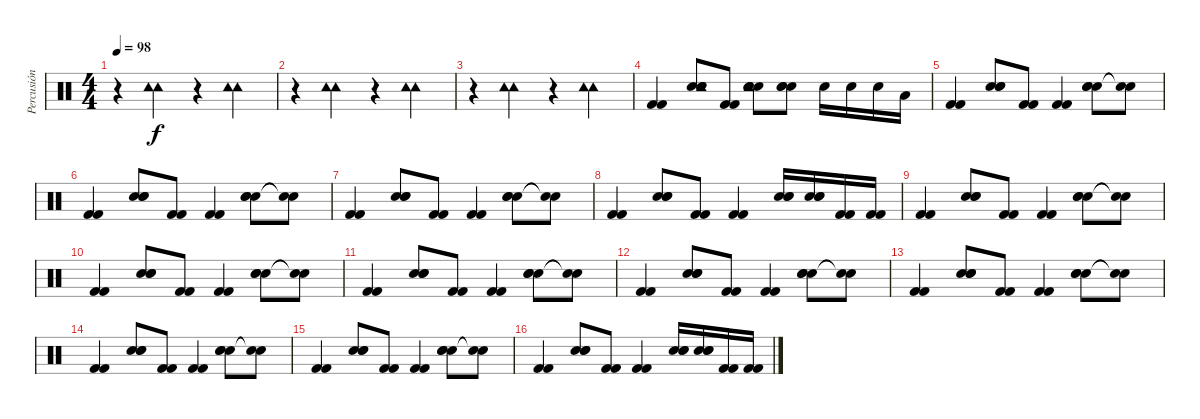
\track ("Percusión" "Percusión") {instrument percussion}
\staff {score}
\articulation defaults
\ts (4 4)
\tempo 98
\clef neutral
\ks c
r.4{dy f} ("Tambourine (hit)" "Tambourine (hit)").4 r.4 ("Tambourine (hit)" "Tambourine (hit)").4 |
r.4 ("Tambourine (hit)" "Tambourine (hit)").4 r.4 ("Tambourine (hit)" "Tambourine (hit)").4 |
r.4 ("Tambourine (hit)" "Tambourine (hit)").4 r.4 ("Tambourine (hit)" "Tambourine (hit)").4 |
("Kick (hit) 2" "Kick (hit) 2").4 ("Electric Snare (hit)" "Electric Snare (hit)" "Electric Snare (hit)" "Tambourine (hit)" "Tambourine (hit)").8 ("Kick (hit) 2" "Kick (hit) 2").8 ("Electric Snare (hit)" "Electric Snare (hit)" "Electric Snare (hit)" "Tambourine (hit)" "Tambourine (hit)").8 ("Electric Snare (hit)" "Electric Snare (hit)" "Electric Snare (hit)").8 "Snare (hit) 2".16 "Snare (hit) 2".16 "Snare (hit) 2".16 "Low Floor Tom (hit)".16 |
("Kick (hit) 2" "Kick (hit) 2").4 ("Electric Snare (hit)" "Electric Snare (hit)" "Electric Snare (hit)").8 ("Kick (hit) 2" "Kick (hit) 2").8 ("Kick (hit) 2" "Kick (hit) 2").4 ("Electric Snare (hit)" "Electric Snare (hit)" "Electric Snare (hit)").8 ("Snare (hit)"{t} "Snare (hit)"{t}).8 |
("Kick (hit) 2" "Kick (hit) 2").4 ("Electric Snare (hit)" "Electric Snare (hit)" "Electric Snare (hit)").8 ("Kick (hit) 2" "Kick (hit) 2").8 ("Kick (hit) 2" "Kick (hit) 2").4 ("Electric Snare (hit)" "Electric Snare (hit)" "Electric Snare (hit)").8 ("Snare (hit)"{t} "Snare (hit)"{t}).8 |
("Kick (hit) 2" "Kick (hit) 2").4 ("Electric Snare (hit)" "Electric Snare (hit)" "Electric Snare (hit)").8 ("Kick (hit) 2" "Kick (hit) 2").8 ("Kick (hit) 2" "Kick (hit) 2").4 ("Electric Snare (hit)" "Electric Snare (hit)" "Electric Snare (hit)").8 ("Snare (hit)"{t} "Snare (hit)"{t}).8 |
("Kick (hit) 2" "Kick (hit) 2").4 ("Electric Snare (hit)" "Electric Snare (hit)" "Electric Snare (hit)").8 ("Kick (hit) 2" "Kick (hit) 2").8 ("Kick (hit) 2" "Kick (hit) 2").4 ("Electric Snare (hit)" "Electric Snare (hit)" "Electric Snare (hit)").16 ("Electric Snare (hit)" "Electric Snare (hit)" "Electric Snare (hit)").16 ("Kick (hit) 2" "Kick (hit) 2").16 ("Kick (hit) 2" "Kick (hit) 2").16 |
("Kick (hit) 2" "Kick (hit) 2").4 ("Electric Snare (hit)" "Electric Snare (hit)" "Electric Snare (hit)").8 ("Kick (hit) 2" "Kick (hit) 2").8 ("Kick (hit) 2" "Kick (hit) 2").4 ("Electric Snare (hit)" "Electric Snare (hit)" "Electric Snare (hit)").8 ("Snare (hit)"{t} "Snare (hit)"{t}).8 |
("Kick (hit) 2" "Kick (hit) 2").4 ("Electric Snare (hit)" "Electric Snare (hit)" "Electric Snare (hit)").8 ("Kick (hit) 2" "Kick (hit) 2").8 ("Kick (hit) 2" "Kick (hit) 2").4 ("Electric Snare (hit)" "Electric Snare (hit)" "Electric Snare (hit)").8 ("Snare (hit)"{t} "Snare (hit)"{t}).8 |
("Kick (hit) 2" "Kick (hit) 2").4 ("Electric Snare (hit)" "Electric Snare (hit)" "Electric Snare (hit)").8 ("Kick (hit) 2" "Kick (hit) 2").8 ("Kick (hit) 2" "Kick (hit) 2").4 ("Electric Snare (hit)" "Electric Snare (hit)" "Electric Snare (hit)").8 ("Snare (hit)"{t} "Snare (hit)"{t}).8 |
("Kick (hit) 2" "Kick (hit) 2").4 ("Electric Snare (hit)" "Electric Snare (hit)" "Electric Snare (hit)").8 ("Kick (hit) 2" "Kick (hit) 2").8 ("Kick (hit) 2" "Kick (hit) 2").4 ("Electric Snare (hit)" "Electric Snare (hit)" "Electric Snare (hit)").8 ("Snare (hit)"{t} "Snare (hit)"{t}).8 |
("Kick (hit) 2" "Kick (hit) 2").4 ("Electric Snare (hit)" "Electric Snare (hit)" "Electric Snare (hit)").8 ("Kick (hit) 2" "Kick (hit) 2").8 ("Kick (hit) 2" "Kick (hit) 2").4 ("Electric Snare (hit)" "Electric Snare (hit)" "Electric Snare (hit)").8 ("Snare (hit)"{t} "Snare (hit)"{t}).8 |
("Kick (hit) 2" "Kick (hit) 2").4 ("Electric Snare (hit)" "Electric Snare (hit)" "Electric Snare (hit)").8 ("Kick (hit) 2" "Kick (hit) 2").8 ("Kick (hit) 2" "Kick (hit) 2").4 ("Electric Snare (hit)" "Electric Snare (hit)" "Electric Snare (hit)").8 ("Snare (hit)"{t} "Snare (hit)"{t}).8 |
("Kick (hit) 2" "Kick (hit) 2").4 ("Electric Snare (hit)" "Electric Snare (hit)" "Electric Snare (hit)").8 ("Kick (hit) 2" "Kick (hit) 2").8 ("Kick (hit) 2" "Kick (hit) 2").4 ("Electric Snare (hit)" "Electric Snare (hit)" "Electric Snare (hit)").8 ("Snare (hit)"{t} "Snare (hit)"{t}).8 |
("Kick (hit) 2" "Kick (hit) 2").4 ("Electric Snare (hit)" "Electric Snare (hit)" "Electric Snare (hit)").8 ("Kick (hit) 2" "Kick (hit) 2").8 ("Kick (hit) 2" "Kick (hit) 2").4 ("Electric Snare (hit)" "Electric Snare (hit)" "Electric Snare (hit)").16 ("Electric Snare (hit)" "Electric Snare (hit)" "Electric Snare (hit)").16 ("Kick (hit) 2" "Kick (hit) 2").16 ("Kick (hit) 2" "Kick (hit) 2").16
